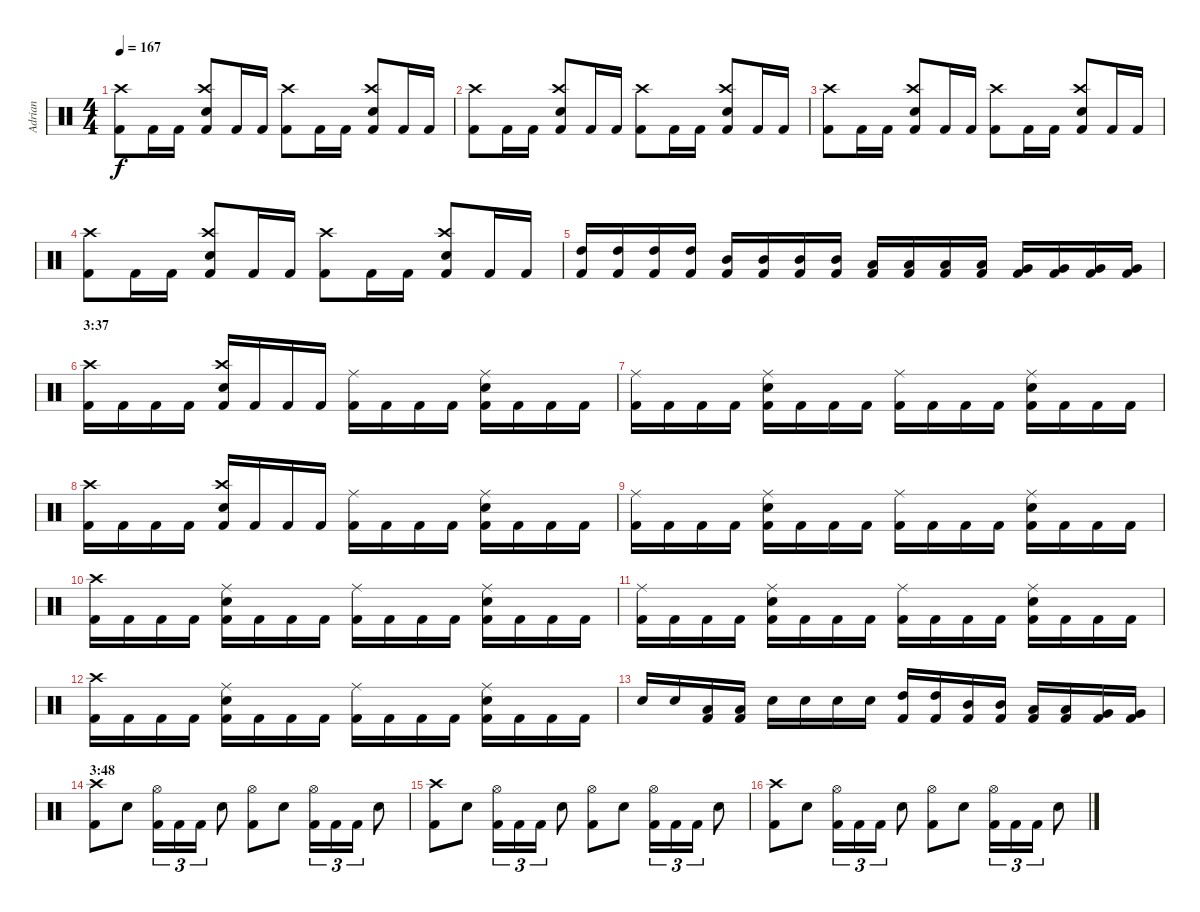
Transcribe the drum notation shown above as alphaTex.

\track ("Adrian" "Adrian") {instrument percussion}
\staff {score}
\articulation defaults
\ts (4 4)
\tempo 167
\clef neutral
\ks c
("Kick (hit) 2" "Crash high (hit)").8{dy f} "Kick (hit) 2".16 "Kick (hit) 2".16 ("Kick (hit) 2" "Snare (hit) 2" "Crash high (hit)").8 "Kick (hit) 2".16 "Kick (hit) 2".16 ("Kick (hit) 2" "Crash high (hit)").8 "Kick (hit) 2".16 "Kick (hit) 2".16 ("Kick (hit) 2" "Snare (hit) 2" "Crash high (hit)").8 "Kick (hit) 2".16 "Kick (hit) 2".16 |
("Kick (hit) 2" "Crash high (hit)").8 "Kick (hit) 2".16 "Kick (hit) 2".16 ("Kick (hit) 2" "Snare (hit) 2" "Crash high (hit)").8 "Kick (hit) 2".16 "Kick (hit) 2".16 ("Kick (hit) 2" "Crash high (hit)").8 "Kick (hit) 2".16 "Kick (hit) 2".16 ("Kick (hit) 2" "Snare (hit) 2" "Crash high (hit)").8 "Kick (hit) 2".16 "Kick (hit) 2".16 |
("Kick (hit) 2" "Crash high (hit)").8 "Kick (hit) 2".16 "Kick (hit) 2".16 ("Kick (hit) 2" "Snare (hit) 2" "Crash high (hit)").8 "Kick (hit) 2".16 "Kick (hit) 2".16 ("Kick (hit) 2" "Crash high (hit)").8 "Kick (hit) 2".16 "Kick (hit) 2".16 ("Kick (hit) 2" "Snare (hit) 2" "Crash high (hit)").8 "Kick (hit) 2".16 "Kick (hit) 2".16 |
("Kick (hit) 2" "Crash high (hit)").8 "Kick (hit) 2".16 "Kick (hit) 2".16 ("Kick (hit) 2" "Snare (hit) 2" "Crash high (hit)").8 "Kick (hit) 2".16 "Kick (hit) 2".16 ("Kick (hit) 2" "Crash high (hit)").8 "Kick (hit) 2".16 "Kick (hit) 2".16 ("Kick (hit) 2" "Snare (hit) 2" "Crash high (hit)").8 "Kick (hit) 2".16 "Kick (hit) 2".16 |
("Kick (hit) 2" "High Tom (hit)").16 ("Kick (hit) 2" "High Tom (hit)").16 ("Kick (hit) 2" "High Tom (hit)").16 ("Kick (hit) 2" "High Tom (hit)").16 ("Kick (hit) 2" "Mid Tom (hit)").16 ("Kick (hit) 2" "Mid Tom (hit)").16 ("Kick (hit) 2" "Mid Tom (hit)").16 ("Kick (hit) 2" "Mid Tom (hit)").16 ("Kick (hit) 2" "Low Tom (hit)").16 ("Kick (hit) 2" "Low Tom (hit)").16 ("Kick (hit) 2" "Low Tom (hit)").16 ("Kick (hit) 2" "Low Tom (hit)").16 ("Kick (hit) 2" "Very Low Tom (hit)").16 ("Kick (hit) 2" "Very Low Tom (hit)").16 ("Kick (hit) 2" "Very Low Tom (hit)").16 ("Kick (hit) 2" "Very Low Tom (hit)").16 |
\section ("" "3:37")
("Kick (hit) 2" "Crash high (hit)").16 "Kick (hit) 2".16 "Kick (hit) 2".16 "Kick (hit) 2".16 ("Kick (hit) 2" "Snare (hit) 2" "Crash high (hit)").16 "Kick (hit) 2".16 "Kick (hit) 2".16 "Kick (hit) 2".16 ("Kick (hit) 2" "Ride (middle)").16 "Kick (hit) 2".16 "Kick (hit) 2".16 "Kick (hit) 2".16 ("Kick (hit) 2" "Snare (hit) 2" "Ride (middle)").16 "Kick (hit) 2".16 "Kick (hit) 2".16 "Kick (hit) 2".16 |
("Kick (hit) 2" "Ride (middle)").16 "Kick (hit) 2".16 "Kick (hit) 2".16 "Kick (hit) 2".16 ("Kick (hit) 2" "Snare (hit) 2" "Ride (middle)").16 "Kick (hit) 2".16 "Kick (hit) 2".16 "Kick (hit) 2".16 ("Kick (hit) 2" "Ride (middle)").16 "Kick (hit) 2".16 "Kick (hit) 2".16 "Kick (hit) 2".16 ("Kick (hit) 2" "Snare (hit) 2" "Ride (middle)").16 "Kick (hit) 2".16 "Kick (hit) 2".16 "Kick (hit) 2".16 |
("Kick (hit) 2" "Crash high (hit)").16 "Kick (hit) 2".16 "Kick (hit) 2".16 "Kick (hit) 2".16 ("Kick (hit) 2" "Snare (hit) 2" "Crash high (hit)").16 "Kick (hit) 2".16 "Kick (hit) 2".16 "Kick (hit) 2".16 ("Kick (hit) 2" "Ride (middle)").16 "Kick (hit) 2".16 "Kick (hit) 2".16 "Kick (hit) 2".16 ("Kick (hit) 2" "Snare (hit) 2" "Ride (middle)").16 "Kick (hit) 2".16 "Kick (hit) 2".16 "Kick (hit) 2".16 |
("Kick (hit) 2" "Ride (middle)").16 "Kick (hit) 2".16 "Kick (hit) 2".16 "Kick (hit) 2".16 ("Kick (hit) 2" "Snare (hit) 2" "Ride (middle)").16 "Kick (hit) 2".16 "Kick (hit) 2".16 "Kick (hit) 2".16 ("Kick (hit) 2" "Ride (middle)").16 "Kick (hit) 2".16 "Kick (hit) 2".16 "Kick (hit) 2".16 ("Kick (hit) 2" "Snare (hit) 2" "Ride (middle)").16 "Kick (hit) 2".16 "Kick (hit) 2".16 "Kick (hit) 2".16 |
("Kick (hit) 2" "Crash high (hit)").16 "Kick (hit) 2".16 "Kick (hit) 2".16 "Kick (hit) 2".16 ("Kick (hit) 2" "Snare (hit) 2" "Ride (middle)").16 "Kick (hit) 2".16 "Kick (hit) 2".16 "Kick (hit) 2".16 ("Kick (hit) 2" "Ride (middle)").16 "Kick (hit) 2".16 "Kick (hit) 2".16 "Kick (hit) 2".16 ("Kick (hit) 2" "Snare (hit) 2" "Ride (middle)").16 "Kick (hit) 2".16 "Kick (hit) 2".16 "Kick (hit) 2".16 |
("Kick (hit) 2" "Ride (middle)").16 "Kick (hit) 2".16 "Kick (hit) 2".16 "Kick (hit) 2".16 ("Kick (hit) 2" "Snare (hit) 2" "Ride (middle)").16 "Kick (hit) 2".16 "Kick (hit) 2".16 "Kick (hit) 2".16 ("Kick (hit) 2" "Ride (middle)").16 "Kick (hit) 2".16 "Kick (hit) 2".16 "Kick (hit) 2".16 ("Kick (hit) 2" "Snare (hit) 2" "Ride (middle)").16 "Kick (hit) 2".16 "Kick (hit) 2".16 "Kick (hit) 2".16 |
("Kick (hit) 2" "Crash high (hit)").16 "Kick (hit) 2".16 "Kick (hit) 2".16 "Kick (hit) 2".16 ("Kick (hit) 2" "Snare (hit) 2" "Ride (middle)").16 "Kick (hit) 2".16 "Kick (hit) 2".16 "Kick (hit) 2".16 ("Kick (hit) 2" "Ride (middle)").16 "Kick (hit) 2".16 "Kick (hit) 2".16 "Kick (hit) 2".16 ("Kick (hit) 2" "Snare (hit) 2" "Ride (middle)").16 "Kick (hit) 2".16 "Kick (hit) 2".16 "Kick (hit) 2".16 |
"Snare (hit) 2".16 "Snare (hit) 2".16 ("Kick (hit) 2" "Low Tom (hit)").16 ("Kick (hit) 2" "Low Tom (hit)").16 "Snare (hit) 2".16 "Snare (hit) 2".16 "Snare (hit) 2".16 "Snare (hit) 2".16 ("Kick (hit) 2" "High Tom (hit)").16 ("Kick (hit) 2" "High Tom (hit)").16 ("Kick (hit) 2" "Mid Tom (hit)").16 ("Kick (hit) 2" "Mid Tom (hit)").16 ("Kick (hit) 2" "Low Tom (hit)").16 ("Kick (hit) 2" "Low Tom (hit)").16 ("Kick (hit) 2" "Very Low Tom (hit)").16 ("Kick (hit) 2" "Very Low Tom (hit)").16 |
\section ("" "3:48")
("Kick (hit) 2" "Crash high (hit)").8 "Snare (hit) 2".8 ("Kick (hit) 2" "Hi-Hat (open)").16{tu (3 2)} "Kick (hit) 2".16{tu (3 2)} "Kick (hit) 2".16{tu (3 2)} "Snare (hit) 2".8 ("Kick (hit) 2" "Hi-Hat (open)").8 "Snare (hit) 2".8 ("Kick (hit) 2" "Hi-Hat (open)").16{tu (3 2)} "Kick (hit) 2".16{tu (3 2)} "Kick (hit) 2".16{tu (3 2)} "Snare (hit) 2".8 |
("Kick (hit) 2" "Crash high (hit)").8 "Snare (hit) 2".8 ("Kick (hit) 2" "Hi-Hat (open)").16{tu (3 2)} "Kick (hit) 2".16{tu (3 2)} "Kick (hit) 2".16{tu (3 2)} "Snare (hit) 2".8 ("Kick (hit) 2" "Hi-Hat (open)").8 "Snare (hit) 2".8 ("Kick (hit) 2" "Hi-Hat (open)").16{tu (3 2)} "Kick (hit) 2".16{tu (3 2)} "Kick (hit) 2".16{tu (3 2)} "Snare (hit) 2".8 |
("Kick (hit) 2" "Crash high (hit)").8 "Snare (hit) 2".8 ("Kick (hit) 2" "Hi-Hat (open)").16{tu (3 2)} "Kick (hit) 2".16{tu (3 2)} "Kick (hit) 2".16{tu (3 2)} "Snare (hit) 2".8 ("Kick (hit) 2" "Hi-Hat (open)").8 "Snare (hit) 2".8 ("Kick (hit) 2" "Hi-Hat (open)").16{tu (3 2)} "Kick (hit) 2".16{tu (3 2)} "Kick (hit) 2".16{tu (3 2)} "Snare (hit) 2".8
